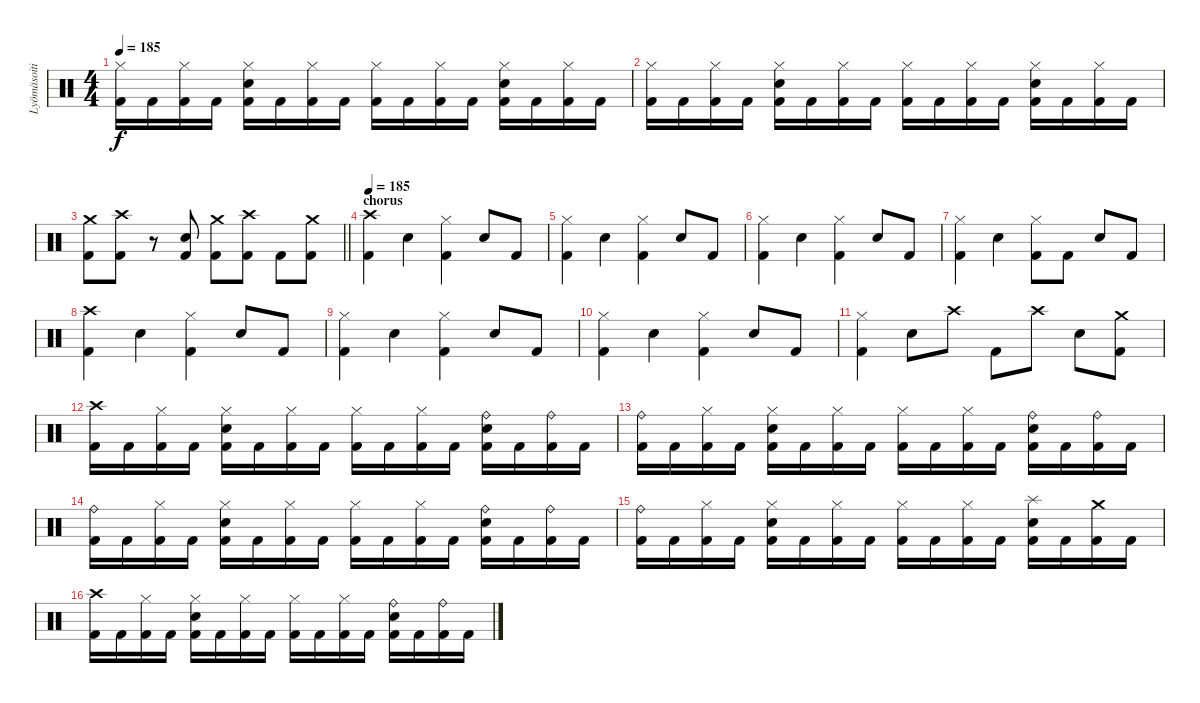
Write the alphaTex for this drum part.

\track ("Lyömäsoitin" "Lyömäsoiti") {instrument percussion}
\staff {score}
\articulation defaults
\ts (4 4)
\tempo 185
\clef neutral
\ks c
("Hi-Hat (closed)" "Kick (hit) 2").16{dy f} "Kick (hit) 2".16 ("Hi-Hat (closed)" "Kick (hit) 2").16 "Kick (hit) 2".16 ("Hi-Hat (closed)" "Electric Snare (hit)" "Kick (hit) 2").16 "Kick (hit) 2".16 ("Hi-Hat (closed)" "Kick (hit) 2").16 "Kick (hit) 2".16 ("Hi-Hat (closed)" "Kick (hit) 2").16 "Kick (hit) 2".16 ("Hi-Hat (closed)" "Kick (hit) 2").16 "Kick (hit) 2".16 ("Hi-Hat (closed)" "Electric Snare (hit)" "Kick (hit) 2").16 "Kick (hit) 2".16 ("Hi-Hat (closed)" "Kick (hit) 2").16 "Kick (hit) 2".16 |
("Hi-Hat (closed)" "Kick (hit) 2").16 "Kick (hit) 2".16 ("Hi-Hat (closed)" "Kick (hit) 2").16 "Kick (hit) 2".16 ("Hi-Hat (closed)" "Electric Snare (hit)" "Kick (hit) 2").16 "Kick (hit) 2".16 ("Hi-Hat (closed)" "Kick (hit) 2").16 "Kick (hit) 2".16 ("Hi-Hat (closed)" "Kick (hit) 2").16 "Kick (hit) 2".16 ("Hi-Hat (closed)" "Kick (hit) 2").16 "Kick (hit) 2".16 ("Hi-Hat (closed)" "Electric Snare (hit)" "Kick (hit) 2").16 "Kick (hit) 2".16 ("Hi-Hat (closed)" "Kick (hit) 2").16 "Kick (hit) 2".16 |
\barLineRight lightlight
("Crash medium (hit)" "Kick (hit) 2").8 ("Crash high (hit)" "Kick (hit) 2").8 r.8 ("Electric Snare (hit)" "Kick (hit) 2").8 ("Crash medium (hit)" "Kick (hit) 2").8 ("Crash high (hit)" "Kick (hit) 2").8 "Kick (hit) 2".8 ("Crash medium (hit)" "Kick (hit) 2").8 |
\section ("" "chorus")
\tempo 185
("Crash high (hit)" "Kick (hit) 2").4 "Electric Snare (hit)".4 ("Hi-Hat (closed)" "Kick (hit) 2").4 "Electric Snare (hit)".8 "Kick (hit) 2".8 |
("Hi-Hat (closed)" "Kick (hit) 2").4 "Electric Snare (hit)".4 ("Hi-Hat (closed)" "Kick (hit) 2").4 "Electric Snare (hit)".8 "Kick (hit) 2".8 |
("Hi-Hat (closed)" "Kick (hit) 2").4 "Electric Snare (hit)".4 ("Hi-Hat (closed)" "Kick (hit) 2").4 "Electric Snare (hit)".8 "Kick (hit) 2".8 |
("Hi-Hat (closed)" "Kick (hit) 2").4 "Electric Snare (hit)".4 ("Hi-Hat (closed)" "Kick (hit) 2").8 "Kick (hit) 2".8 "Electric Snare (hit)".8 "Kick (hit) 2".8 |
("Crash high (hit)" "Kick (hit) 2").4 "Electric Snare (hit)".4 ("Hi-Hat (closed)" "Kick (hit) 2").4 "Electric Snare (hit)".8 "Kick (hit) 2".8 |
("Hi-Hat (closed)" "Kick (hit) 2").4 "Electric Snare (hit)".4 ("Hi-Hat (closed)" "Kick (hit) 2").4 "Electric Snare (hit)".8 "Kick (hit) 2".8 |
("Hi-Hat (closed)" "Kick (hit) 2").4 "Electric Snare (hit)".4 ("Hi-Hat (closed)" "Kick (hit) 2").4 "Electric Snare (hit)".8 "Kick (hit) 2".8 |
("Hi-Hat (closed)" "Kick (hit) 2").4 "Electric Snare (hit)".8 "Crash high (hit)".8 "Kick (hit) 2".8 "Crash high (hit)".8 "Electric Snare (hit)".8 ("Crash medium (hit)" "Kick (hit) 2").8 |
("Crash high (hit)" "Kick (hit) 2").16 "Kick (hit) 2".16 ("Hi-Hat (closed)" "Kick (hit) 2").16 "Kick (hit) 2".16 ("Hi-Hat (closed)" "Electric Snare (hit)" "Kick (hit) 2").16 "Kick (hit) 2".16 ("Hi-Hat (closed)" "Kick (hit) 2").16 "Kick (hit) 2".16 ("Hi-Hat (closed)" "Kick (hit) 2").16 "Kick (hit) 2".16 ("Hi-Hat (closed)" "Kick (hit) 2").16 "Kick (hit) 2".16 ("Ride (bell)" "Electric Snare (hit)" "Kick (hit) 2").16 "Kick (hit) 2".16 ("Ride (bell)" "Kick (hit) 2").16 "Kick (hit) 2".16 |
("Ride (bell)" "Kick (hit) 2").16 "Kick (hit) 2".16 ("Hi-Hat (closed)" "Kick (hit) 2").16 "Kick (hit) 2".16 ("Hi-Hat (closed)" "Electric Snare (hit)" "Kick (hit) 2").16 "Kick (hit) 2".16 ("Hi-Hat (closed)" "Kick (hit) 2").16 "Kick (hit) 2".16 ("Hi-Hat (closed)" "Kick (hit) 2").16 "Kick (hit) 2".16 ("Hi-Hat (closed)" "Kick (hit) 2").16 "Kick (hit) 2".16 ("Ride (bell)" "Electric Snare (hit)" "Kick (hit) 2").16 "Kick (hit) 2".16 ("Ride (bell)" "Kick (hit) 2").16 "Kick (hit) 2".16 |
("Ride (bell)" "Kick (hit) 2").16 "Kick (hit) 2".16 ("Hi-Hat (closed)" "Kick (hit) 2").16 "Kick (hit) 2".16 ("Hi-Hat (closed)" "Electric Snare (hit)" "Kick (hit) 2").16 "Kick (hit) 2".16 ("Hi-Hat (closed)" "Kick (hit) 2").16 "Kick (hit) 2".16 ("Hi-Hat (closed)" "Kick (hit) 2").16 "Kick (hit) 2".16 ("Hi-Hat (closed)" "Kick (hit) 2").16 "Kick (hit) 2".16 ("Ride (bell)" "Electric Snare (hit)" "Kick (hit) 2").16 "Kick (hit) 2".16 ("Ride (bell)" "Kick (hit) 2").16 "Kick (hit) 2".16 |
("Ride (bell)" "Kick (hit) 2").16 "Kick (hit) 2".16 ("Hi-Hat (closed)" "Kick (hit) 2").16 "Kick (hit) 2".16 ("Hi-Hat (closed)" "Electric Snare (hit)" "Kick (hit) 2").16 "Kick (hit) 2".16 ("Hi-Hat (closed)" "Kick (hit) 2").16 "Kick (hit) 2".16 ("Hi-Hat (closed)" "Kick (hit) 2").16 "Kick (hit) 2".16 ("Hi-Hat (closed)" "Kick (hit) 2").16 "Kick (hit) 2".16 ("Splash (hit)" "Electric Snare (hit)" "Kick (hit) 2").16 "Kick (hit) 2".16 ("Crash medium (hit)" "Kick (hit) 2").16 "Kick (hit) 2".16 |
("Crash high (hit)" "Kick (hit) 2").16 "Kick (hit) 2".16 ("Hi-Hat (closed)" "Kick (hit) 2").16 "Kick (hit) 2".16 ("Hi-Hat (closed)" "Electric Snare (hit)" "Kick (hit) 2").16 "Kick (hit) 2".16 ("Hi-Hat (closed)" "Kick (hit) 2").16 "Kick (hit) 2".16 ("Hi-Hat (closed)" "Kick (hit) 2").16 "Kick (hit) 2".16 ("Hi-Hat (closed)" "Kick (hit) 2").16 "Kick (hit) 2".16 ("Ride (bell)" "Electric Snare (hit)" "Kick (hit) 2").16 "Kick (hit) 2".16 ("Ride (bell)" "Kick (hit) 2").16 "Kick (hit) 2".16
